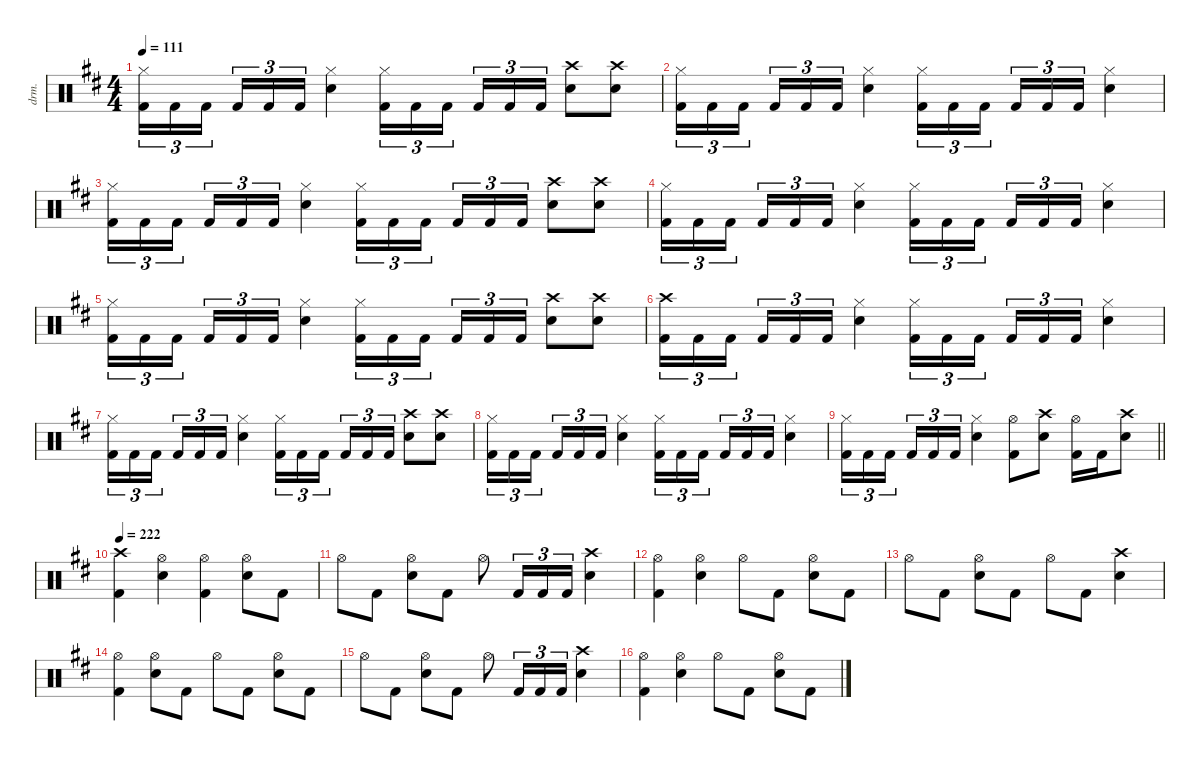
\defaultSystemsLayout 4
\hideDynamics
\bracketExtendMode nobrackets
\otherSystemsTrackNameOrientation horizontal
\track ("Lars Ulrich" "drm.") {defaultSystemsLayout 4 instrument percussion}
\staff {score}
\articulation defaults
\ts (4 4)
\tempo 111
\clef neutral
\ks bminor
("Hi-Hat (closed)"{acc forcenatural} "Kick (hit) 2"{acc forcenatural}).16{tu (3 2) dy f beam Down} "Kick (hit) 2"{acc forcenatural}.16{tu (3 2) beam Down} "Kick (hit) 2"{acc forcenatural}.16{tu (3 2) beam Down} "Kick (hit) 2"{acc forcenatural}.16{tu (3 2) beam Up} "Kick (hit) 2"{acc forcenatural}.16{tu (3 2) beam Up} "Kick (hit) 2"{acc forcenatural}.16{tu (3 2) beam Up} ("Hi-Hat (closed)"{acc forcenatural} "Snare (hit) 2"{acc forcenatural}).4{beam Down} ("Hi-Hat (closed)"{acc forcenatural} "Kick (hit) 2"{acc forcenatural}).16{tu (3 2) beam Down} "Kick (hit) 2"{acc forcenatural}.16{tu (3 2) beam Down} "Kick (hit) 2"{acc forcenatural}.16{tu (3 2) beam Down} "Kick (hit) 2"{acc forcenatural}.16{tu (3 2) beam Up} "Kick (hit) 2"{acc forcenatural}.16{tu (3 2) beam Up} "Kick (hit) 2"{acc forcenatural}.16{tu (3 2) beam Up} ("Crash high (hit)"{acc forcenatural} "Snare (hit) 2"{acc forcenatural}).8{beam Down} ("Crash high (hit)"{acc forcenatural} "Snare (hit) 2"{acc forcenatural}).8{beam Down} |
("Hi-Hat (closed)"{acc forcenatural} "Kick (hit) 2"{acc forcenatural}).16{tu (3 2) beam Down} "Kick (hit) 2"{acc forcenatural}.16{tu (3 2) beam Down} "Kick (hit) 2"{acc forcenatural}.16{tu (3 2) beam Down} "Kick (hit) 2"{acc forcenatural}.16{tu (3 2) beam Up} "Kick (hit) 2"{acc forcenatural}.16{tu (3 2) beam Up} "Kick (hit) 2"{acc forcenatural}.16{tu (3 2) beam Up} ("Hi-Hat (closed)"{acc forcenatural} "Snare (hit) 2"{acc forcenatural}).4{beam Down} ("Hi-Hat (closed)"{acc forcenatural} "Kick (hit) 2"{acc forcenatural}).16{tu (3 2) beam Down} "Kick (hit) 2"{acc forcenatural}.16{tu (3 2) beam Down} "Kick (hit) 2"{acc forcenatural}.16{tu (3 2) beam Down} "Kick (hit) 2"{acc forcenatural}.16{tu (3 2) beam Up} "Kick (hit) 2"{acc forcenatural}.16{tu (3 2) beam Up} "Kick (hit) 2"{acc forcenatural}.16{tu (3 2) beam Up} ("Hi-Hat (closed)"{acc forcenatural} "Snare (hit) 2"{acc forcenatural}).4{beam Down} |
("Hi-Hat (closed)"{acc forcenatural} "Kick (hit) 2"{acc forcenatural}).16{tu (3 2) beam Down} "Kick (hit) 2"{acc forcenatural}.16{tu (3 2) beam Down} "Kick (hit) 2"{acc forcenatural}.16{tu (3 2) beam Down} "Kick (hit) 2"{acc forcenatural}.16{tu (3 2) beam Up} "Kick (hit) 2"{acc forcenatural}.16{tu (3 2) beam Up} "Kick (hit) 2"{acc forcenatural}.16{tu (3 2) beam Up} ("Hi-Hat (closed)"{acc forcenatural} "Snare (hit) 2"{acc forcenatural}).4{beam Down} ("Hi-Hat (closed)"{acc forcenatural} "Kick (hit) 2"{acc forcenatural}).16{tu (3 2) beam Down} "Kick (hit) 2"{acc forcenatural}.16{tu (3 2) beam Down} "Kick (hit) 2"{acc forcenatural}.16{tu (3 2) beam Down} "Kick (hit) 2"{acc forcenatural}.16{tu (3 2) beam Up} "Kick (hit) 2"{acc forcenatural}.16{tu (3 2) beam Up} "Kick (hit) 2"{acc forcenatural}.16{tu (3 2) beam Up} ("Crash high (hit)"{acc forcenatural} "Snare (hit) 2"{acc forcenatural}).8{beam Down} ("Crash high (hit)"{acc forcenatural} "Snare (hit) 2"{acc forcenatural}).8{beam Down} |
("Hi-Hat (closed)"{acc forcenatural} "Kick (hit) 2"{acc forcenatural}).16{tu (3 2) beam Down} "Kick (hit) 2"{acc forcenatural}.16{tu (3 2) beam Down} "Kick (hit) 2"{acc forcenatural}.16{tu (3 2) beam Down} "Kick (hit) 2"{acc forcenatural}.16{tu (3 2) beam Up} "Kick (hit) 2"{acc forcenatural}.16{tu (3 2) beam Up} "Kick (hit) 2"{acc forcenatural}.16{tu (3 2) beam Up} ("Hi-Hat (closed)"{acc forcenatural} "Snare (hit) 2"{acc forcenatural}).4{beam Down} ("Hi-Hat (closed)"{acc forcenatural} "Kick (hit) 2"{acc forcenatural}).16{tu (3 2) beam Down} "Kick (hit) 2"{acc forcenatural}.16{tu (3 2) beam Down} "Kick (hit) 2"{acc forcenatural}.16{tu (3 2) beam Down} "Kick (hit) 2"{acc forcenatural}.16{tu (3 2) beam Up} "Kick (hit) 2"{acc forcenatural}.16{tu (3 2) beam Up} "Kick (hit) 2"{acc forcenatural}.16{tu (3 2) beam Up} ("Hi-Hat (closed)"{acc forcenatural} "Snare (hit) 2"{acc forcenatural}).4{beam Down} |
("Hi-Hat (closed)"{acc forcenatural} "Kick (hit) 2"{acc forcenatural}).16{tu (3 2) beam Down} "Kick (hit) 2"{acc forcenatural}.16{tu (3 2) beam Down} "Kick (hit) 2"{acc forcenatural}.16{tu (3 2) beam Down} "Kick (hit) 2"{acc forcenatural}.16{tu (3 2) beam Up} "Kick (hit) 2"{acc forcenatural}.16{tu (3 2) beam Up} "Kick (hit) 2"{acc forcenatural}.16{tu (3 2) beam Up} ("Hi-Hat (closed)"{acc forcenatural} "Snare (hit) 2"{acc forcenatural}).4{beam Down} ("Hi-Hat (closed)"{acc forcenatural} "Kick (hit) 2"{acc forcenatural}).16{tu (3 2) beam Down} "Kick (hit) 2"{acc forcenatural}.16{tu (3 2) beam Down} "Kick (hit) 2"{acc forcenatural}.16{tu (3 2) beam Down} "Kick (hit) 2"{acc forcenatural}.16{tu (3 2) beam Up} "Kick (hit) 2"{acc forcenatural}.16{tu (3 2) beam Up} "Kick (hit) 2"{acc forcenatural}.16{tu (3 2) beam Up} ("Crash high (hit)"{acc forcenatural} "Snare (hit) 2"{acc forcenatural}).8{beam Down} ("Crash high (hit)"{acc forcenatural} "Snare (hit) 2"{acc forcenatural}).8{beam Down} |
("Crash high (hit)"{acc forcenatural} "Kick (hit) 2"{acc forcenatural}).16{tu (3 2) beam Down} "Kick (hit) 2"{acc forcenatural}.16{tu (3 2) beam Down} "Kick (hit) 2"{acc forcenatural}.16{tu (3 2) beam Down} "Kick (hit) 2"{acc forcenatural}.16{tu (3 2) beam Up} "Kick (hit) 2"{acc forcenatural}.16{tu (3 2) beam Up} "Kick (hit) 2"{acc forcenatural}.16{tu (3 2) beam Up} ("Hi-Hat (closed)"{acc forcenatural} "Snare (hit) 2"{acc forcenatural}).4{beam Down} ("Hi-Hat (closed)"{acc forcenatural} "Kick (hit) 2"{acc forcenatural}).16{tu (3 2) beam Down} "Kick (hit) 2"{acc forcenatural}.16{tu (3 2) beam Down} "Kick (hit) 2"{acc forcenatural}.16{tu (3 2) beam Down} "Kick (hit) 2"{acc forcenatural}.16{tu (3 2) beam Up} "Kick (hit) 2"{acc forcenatural}.16{tu (3 2) beam Up} "Kick (hit) 2"{acc forcenatural}.16{tu (3 2) beam Up} ("Hi-Hat (closed)"{acc forcenatural} "Snare (hit) 2"{acc forcenatural}).4{beam Down} |
("Hi-Hat (closed)"{acc forcenatural} "Kick (hit) 2"{acc forcenatural}).16{tu (3 2) beam Down} "Kick (hit) 2"{acc forcenatural}.16{tu (3 2) beam Down} "Kick (hit) 2"{acc forcenatural}.16{tu (3 2) beam Down} "Kick (hit) 2"{acc forcenatural}.16{tu (3 2) beam Up} "Kick (hit) 2"{acc forcenatural}.16{tu (3 2) beam Up} "Kick (hit) 2"{acc forcenatural}.16{tu (3 2) beam Up} ("Hi-Hat (closed)"{acc forcenatural} "Snare (hit) 2"{acc forcenatural}).4{beam Down} ("Hi-Hat (closed)"{acc forcenatural} "Kick (hit) 2"{acc forcenatural}).16{tu (3 2) beam Down} "Kick (hit) 2"{acc forcenatural}.16{tu (3 2) beam Down} "Kick (hit) 2"{acc forcenatural}.16{tu (3 2) beam Down} "Kick (hit) 2"{acc forcenatural}.16{tu (3 2) beam Up} "Kick (hit) 2"{acc forcenatural}.16{tu (3 2) beam Up} "Kick (hit) 2"{acc forcenatural}.16{tu (3 2) beam Up} ("Crash high (hit)"{acc forcenatural} "Snare (hit) 2"{acc forcenatural}).8{beam Down} ("Crash high (hit)"{acc forcenatural} "Snare (hit) 2"{acc forcenatural}).8{beam Down} |
("Hi-Hat (closed)"{acc forcenatural} "Kick (hit) 2"{acc forcenatural}).16{tu (3 2) beam Down} "Kick (hit) 2"{acc forcenatural}.16{tu (3 2) beam Down} "Kick (hit) 2"{acc forcenatural}.16{tu (3 2) beam Down} "Kick (hit) 2"{acc forcenatural}.16{tu (3 2) beam Up} "Kick (hit) 2"{acc forcenatural}.16{tu (3 2) beam Up} "Kick (hit) 2"{acc forcenatural}.16{tu (3 2) beam Up} ("Hi-Hat (closed)"{acc forcenatural} "Snare (hit) 2"{acc forcenatural}).4{beam Down} ("Hi-Hat (closed)"{acc forcenatural} "Kick (hit) 2"{acc forcenatural}).16{tu (3 2) beam Down} "Kick (hit) 2"{acc forcenatural}.16{tu (3 2) beam Down} "Kick (hit) 2"{acc forcenatural}.16{tu (3 2) beam Down} "Kick (hit) 2"{acc forcenatural}.16{tu (3 2) beam Up} "Kick (hit) 2"{acc forcenatural}.16{tu (3 2) beam Up} "Kick (hit) 2"{acc forcenatural}.16{tu (3 2) beam Up} ("Hi-Hat (closed)"{acc forcenatural} "Snare (hit) 2"{acc forcenatural}).4{beam Down} |
\barLineRight lightlight
("Hi-Hat (closed)"{acc forcenatural} "Kick (hit) 2"{acc forcenatural}).16{tu (3 2) beam Down} "Kick (hit) 2"{acc forcenatural}.16{tu (3 2) beam Down} "Kick (hit) 2"{acc forcenatural}.16{tu (3 2) beam Down} "Kick (hit) 2"{acc forcenatural}.16{tu (3 2) beam Up} "Kick (hit) 2"{acc forcenatural}.16{tu (3 2) beam Up} "Kick (hit) 2"{acc forcenatural}.16{tu (3 2) beam Up} ("Hi-Hat (closed)"{acc forcenatural} "Snare (hit) 2"{acc forcenatural}).4{beam Down} ("Hi-Hat (open)"{acc forcenatural} "Kick (hit) 2"{acc forcenatural}).8{beam Down} ("Crash high (hit)"{acc forcenatural} "Snare (hit) 2"{acc forcenatural}).8{beam Down} ("Hi-Hat (open)"{acc forcenatural} "Kick (hit) 2"{acc forcenatural}).16{beam Down} "Kick (hit) 2"{acc forcenatural}.16{beam Down} ("Crash high (hit)"{acc forcenatural} "Snare (hit) 2"{acc forcenatural}).8{beam Down} |
\tempo 222
("Crash high (hit)"{acc forcenatural} "Kick (hit) 2"{acc forcenatural}).4{beam Down} ("Hi-Hat (open)"{acc forcenatural} "Snare (hit) 2"{acc forcenatural}).4{beam Down} ("Hi-Hat (open)"{acc forcenatural} "Kick (hit) 2"{acc forcenatural}).4{beam Down} ("Hi-Hat (open)"{acc forcenatural} "Snare (hit) 2"{acc forcenatural}).8{beam Down} "Kick (hit) 2"{acc forcenatural}.8{beam Down} |
"Hi-Hat (open)"{acc forcenatural}.8{beam Down} "Kick (hit) 2"{acc forcenatural}.8{beam Down} ("Hi-Hat (open)"{acc forcenatural} "Snare (hit) 2"{acc forcenatural}).8{beam Down} "Kick (hit) 2"{acc forcenatural}.8{beam Down} "Hi-Hat (open)"{acc forcenatural}.8{beam Down} "Kick (hit) 2"{acc forcenatural}.16{tu (3 2) beam Up} "Kick (hit) 2"{acc forcenatural}.16{tu (3 2) beam Up} "Kick (hit) 2"{acc forcenatural}.16{tu (3 2) beam Up} ("Crash high (hit)"{acc forcenatural} "Snare (hit) 2"{acc forcenatural}).4{beam Down} |
("Hi-Hat (open)"{acc forcenatural} "Kick (hit) 2"{acc forcenatural}).4{beam Down} ("Hi-Hat (open)"{acc forcenatural} "Snare (hit) 2"{acc forcenatural}).4{beam Down} "Hi-Hat (open)"{acc forcenatural}.8{beam Down} "Kick (hit) 2"{acc forcenatural}.8{beam Down} ("Hi-Hat (open)"{acc forcenatural} "Snare (hit) 2"{acc forcenatural}).8{beam Down} "Kick (hit) 2"{acc forcenatural}.8{beam Down} |
"Hi-Hat (open)"{acc forcenatural}.8{beam Down} "Kick (hit) 2"{acc forcenatural}.8{beam Down} ("Hi-Hat (open)"{acc forcenatural} "Snare (hit) 2"{acc forcenatural}).8{beam Down} "Kick (hit) 2"{acc forcenatural}.8{beam Down} "Hi-Hat (open)"{acc forcenatural}.8{beam Down} "Kick (hit) 2"{acc forcenatural}.8{beam Down} ("Crash high (hit)"{acc forcenatural} "Snare (hit) 2"{acc forcenatural}).4{beam Down} |
("Hi-Hat (open)"{acc forcenatural} "Kick (hit) 2"{acc forcenatural}).4{beam Down} ("Hi-Hat (open)"{acc forcenatural} "Snare (hit) 2"{acc forcenatural}).8{beam Down} "Kick (hit) 2"{acc forcenatural}.8{beam Down} "Hi-Hat (open)"{acc forcenatural}.8{beam Down} "Kick (hit) 2"{acc forcenatural}.8{beam Down} ("Hi-Hat (open)"{acc forcenatural} "Snare (hit) 2"{acc forcenatural}).8{beam Down} "Kick (hit) 2"{acc forcenatural}.8{beam Down} |
"Hi-Hat (open)"{acc forcenatural}.8{beam Down} "Kick (hit) 2"{acc forcenatural}.8{beam Down} ("Hi-Hat (open)"{acc forcenatural} "Snare (hit) 2"{acc forcenatural}).8{beam Down} "Kick (hit) 2"{acc forcenatural}.8{beam Down} "Hi-Hat (open)"{acc forcenatural}.8{beam Down} "Kick (hit) 2"{acc forcenatural}.16{tu (3 2) beam Up} "Kick (hit) 2"{acc forcenatural}.16{tu (3 2) beam Up} "Kick (hit) 2"{acc forcenatural}.16{tu (3 2) beam Up} ("Crash high (hit)"{acc forcenatural} "Snare (hit) 2"{acc forcenatural}).4{beam Down} |
("Hi-Hat (open)"{acc forcenatural} "Kick (hit) 2"{acc forcenatural}).4{beam Down} ("Hi-Hat (open)"{acc forcenatural} "Snare (hit) 2"{acc forcenatural}).4{beam Down} "Hi-Hat (open)"{acc forcenatural}.8{beam Down} "Kick (hit) 2"{acc forcenatural}.8{beam Down} ("Hi-Hat (open)"{acc forcenatural} "Snare (hit) 2"{acc forcenatural}).8{beam Down} "Kick (hit) 2"{acc forcenatural}.8{beam Down}
